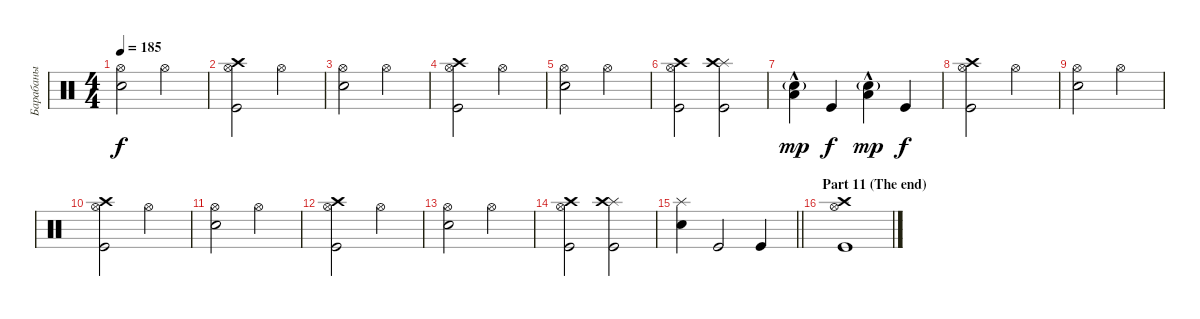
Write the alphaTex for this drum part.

\track ("Барабаны" "Барабаны") {instrument percussion}
\staff {score}
\articulation defaults
\ts (4 4)
\tempo 185
\clef neutral
\ks c
("Hi-Hat (open)" "Electric Snare (hit)").2{dy f} "Hi-Hat (open)".2 |
("Hi-Hat (open)" "Crash high (hit)" "Kick (hit)").2 "Hi-Hat (open)".2 |
("Hi-Hat (open)" "Electric Snare (hit)").2 "Hi-Hat (open)".2 |
("Hi-Hat (open)" "Crash high (hit)" "Kick (hit)").2 "Hi-Hat (open)".2 |
("Hi-Hat (open)" "Electric Snare (hit)").2 "Hi-Hat (open)".2 |
("Hi-Hat (open)" "Crash high (hit)" "Kick (hit)").2 ("Splash (hit)" "Crash high (hit)" "Kick (hit)").2 |
("Low Floor Tom (hit)"{hac} "Electric Snare (hit)"{g}).4{dy mp volume 16} "Kick (hit)".4{dy f volume 13} ("Low Floor Tom (hit)"{hac} "Electric Snare (hit)"{g}).4{dy mp volume 16} "Kick (hit)".4{dy f volume 13} |
("Hi-Hat (open)" "Crash high (hit)" "Kick (hit)").2 "Hi-Hat (open)".2 |
("Hi-Hat (open)" "Electric Snare (hit)").2 "Hi-Hat (open)".2 |
("Hi-Hat (open)" "Crash high (hit)" "Kick (hit)").2 "Hi-Hat (open)".2 |
("Hi-Hat (open)" "Electric Snare (hit)").2 "Hi-Hat (open)".2 |
("Hi-Hat (open)" "Crash high (hit)" "Kick (hit)").2 "Hi-Hat (open)".2 |
("Hi-Hat (open)" "Electric Snare (hit)").2 "Hi-Hat (open)".2 |
("Hi-Hat (open)" "Crash high (hit)" "Kick (hit)").2 ("Splash (hit)" "Crash high (hit)" "Kick (hit)").2 |
\barLineRight lightlight
("Splash (hit)" "Electric Snare (hit)").4 "Kick (hit)".2 "Kick (hit)".4 |
\section ("" "Part 11 (The end)")
("Hi-Hat (open)" "Crash high (hit)" "Kick (hit)").1
